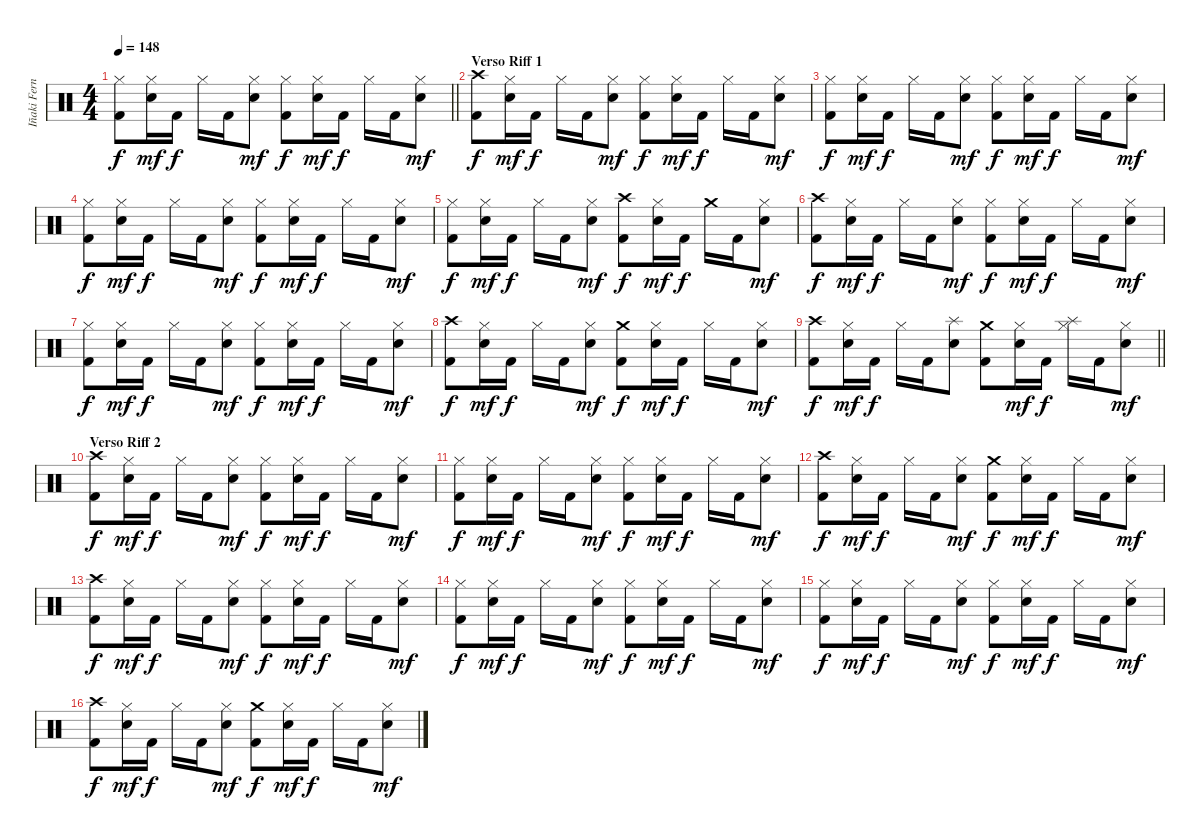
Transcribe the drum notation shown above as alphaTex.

\track ("Iñaki Fernández" "Iñaki Fern") {instrument percussion}
\staff {score}
\articulation defaults
\ts (4 4)
\tempo 148
\clef neutral
\barLineRight lightlight
\ks c
("Hi-Hat (closed)" "Kick (hit) 2").8{dy f} ("Hi-Hat (closed)" "Snare (hit) 2").16{dy mf} "Kick (hit) 2".16{dy f} "Hi-Hat (closed)".16 "Kick (hit) 2".16 ("Hi-Hat (closed)" "Snare (hit) 2").8{dy mf} ("Hi-Hat (closed)" "Kick (hit) 2").8{dy f} ("Hi-Hat (closed)" "Snare (hit) 2").16{dy mf} "Kick (hit) 2".16{dy f} "Hi-Hat (closed)".16 "Kick (hit) 2".16 ("Hi-Hat (closed)" "Snare (hit) 2").8{dy mf} |
\section ("" "Verso Riff 1")
("Crash high (hit)" "Kick (hit) 2").8{dy f} ("Hi-Hat (closed)" "Snare (hit) 2").16{dy mf} "Kick (hit) 2".16{dy f} "Hi-Hat (closed)".16 "Kick (hit) 2".16 ("Hi-Hat (closed)" "Snare (hit) 2").8{dy mf} ("Hi-Hat (closed)" "Kick (hit) 2").8{dy f} ("Hi-Hat (closed)" "Snare (hit) 2").16{dy mf} "Kick (hit) 2".16{dy f} "Hi-Hat (closed)".16 "Kick (hit) 2".16 ("Hi-Hat (closed)" "Snare (hit) 2").8{dy mf} |
("Hi-Hat (closed)" "Kick (hit) 2").8{dy f} ("Hi-Hat (closed)" "Snare (hit) 2").16{dy mf} "Kick (hit) 2".16{dy f} "Hi-Hat (closed)".16 "Kick (hit) 2".16 ("Hi-Hat (closed)" "Snare (hit) 2").8{dy mf} ("Hi-Hat (closed)" "Kick (hit) 2").8{dy f} ("Hi-Hat (closed)" "Snare (hit) 2").16{dy mf} "Kick (hit) 2".16{dy f} "Hi-Hat (closed)".16 "Kick (hit) 2".16 ("Hi-Hat (closed)" "Snare (hit) 2").8{dy mf} |
("Hi-Hat (closed)" "Kick (hit) 2").8{dy f} ("Hi-Hat (closed)" "Snare (hit) 2").16{dy mf} "Kick (hit) 2".16{dy f} "Hi-Hat (closed)".16 "Kick (hit) 2".16 ("Hi-Hat (closed)" "Snare (hit) 2").8{dy mf} ("Hi-Hat (closed)" "Kick (hit) 2").8{dy f} ("Hi-Hat (closed)" "Snare (hit) 2").16{dy mf} "Kick (hit) 2".16{dy f} "Hi-Hat (closed)".16 "Kick (hit) 2".16 ("Hi-Hat (closed)" "Snare (hit) 2").8{dy mf} |
("Hi-Hat (closed)" "Kick (hit) 2").8{dy f} ("Hi-Hat (closed)" "Snare (hit) 2").16{dy mf} "Kick (hit) 2".16{dy f} "Hi-Hat (closed)".16 "Kick (hit) 2".16 ("Hi-Hat (closed)" "Snare (hit) 2").8{dy mf} ("Crash high (hit)" "Kick (hit) 2").8{dy f} ("Hi-Hat (closed)" "Snare (hit) 2").16{dy mf} "Kick (hit) 2".16{dy f} "Crash medium (hit)".16 "Kick (hit) 2".16 ("Hi-Hat (closed)" "Snare (hit) 2").8{dy mf} |
("Crash high (hit)" "Kick (hit) 2").8{dy f} ("Hi-Hat (closed)" "Snare (hit) 2").16{dy mf} "Kick (hit) 2".16{dy f} "Hi-Hat (closed)".16 "Kick (hit) 2".16 ("Hi-Hat (closed)" "Snare (hit) 2").8{dy mf} ("Hi-Hat (closed)" "Kick (hit) 2").8{dy f} ("Hi-Hat (closed)" "Snare (hit) 2").16{dy mf} "Kick (hit) 2".16{dy f} "Hi-Hat (closed)".16 "Kick (hit) 2".16 ("Hi-Hat (closed)" "Snare (hit) 2").8{dy mf} |
("Hi-Hat (closed)" "Kick (hit) 2").8{dy f} ("Hi-Hat (closed)" "Snare (hit) 2").16{dy mf} "Kick (hit) 2".16{dy f} "Hi-Hat (closed)".16 "Kick (hit) 2".16 ("Hi-Hat (closed)" "Snare (hit) 2").8{dy mf} ("Hi-Hat (closed)" "Kick (hit) 2").8{dy f} ("Hi-Hat (closed)" "Snare (hit) 2").16{dy mf} "Kick (hit) 2".16{dy f} "Hi-Hat (closed)".16 "Kick (hit) 2".16 ("Hi-Hat (closed)" "Snare (hit) 2").8{dy mf} |
("Crash high (hit)" "Kick (hit) 2").8{dy f} ("Hi-Hat (closed)" "Snare (hit) 2").16{dy mf} "Kick (hit) 2".16{dy f} "Hi-Hat (closed)".16 "Kick (hit) 2".16 ("Hi-Hat (closed)" "Snare (hit) 2").8{dy mf} ("Crash medium (hit)" "Kick (hit) 2").8{dy f} ("Hi-Hat (closed)" "Snare (hit) 2").16{dy mf} "Kick (hit) 2".16{dy f} "Hi-Hat (closed)".16 "Kick (hit) 2".16 ("Hi-Hat (closed)" "Snare (hit) 2").8{dy mf} |
\barLineRight lightlight
("Crash high (hit)" "Kick (hit) 2").8{dy f} ("Hi-Hat (closed)" "Snare (hit) 2").16{dy mf} "Kick (hit) 2".16{dy f} "Hi-Hat (closed)".16 "Kick (hit) 2".16 ("Snare (hit) 2" "Splash (hit)").8 ("Crash medium (hit)" "Kick (hit) 2").8 ("Hi-Hat (closed)" "Snare (hit) 2").16{dy mf} "Kick (hit) 2".16{dy f} ("Hi-Hat (closed)" "Splash (hit)").16 "Kick (hit) 2".16 ("Hi-Hat (closed)" "Snare (hit) 2").8{dy mf} |
\section ("" "Verso Riff 2")
("Crash high (hit)" "Kick (hit) 2").8{dy f} ("Hi-Hat (closed)" "Snare (hit) 2").16{dy mf} "Kick (hit) 2".16{dy f} "Hi-Hat (closed)".16 "Kick (hit) 2".16 ("Hi-Hat (closed)" "Snare (hit) 2").8{dy mf} ("Hi-Hat (closed)" "Kick (hit) 2").8{dy f} ("Hi-Hat (closed)" "Snare (hit) 2").16{dy mf} "Kick (hit) 2".16{dy f} "Hi-Hat (closed)".16 "Kick (hit) 2".16 ("Hi-Hat (closed)" "Snare (hit) 2").8{dy mf} |
("Hi-Hat (closed)" "Kick (hit) 2").8{dy f} ("Hi-Hat (closed)" "Snare (hit) 2").16{dy mf} "Kick (hit) 2".16{dy f} "Hi-Hat (closed)".16 "Kick (hit) 2".16 ("Hi-Hat (closed)" "Snare (hit) 2").8{dy mf} ("Hi-Hat (closed)" "Kick (hit) 2").8{dy f} ("Hi-Hat (closed)" "Snare (hit) 2").16{dy mf} "Kick (hit) 2".16{dy f} "Hi-Hat (closed)".16 "Kick (hit) 2".16 ("Hi-Hat (closed)" "Snare (hit) 2").8{dy mf} |
("Crash high (hit)" "Kick (hit) 2").8{dy f} ("Hi-Hat (closed)" "Snare (hit) 2").16{dy mf} "Kick (hit) 2".16{dy f} "Hi-Hat (closed)".16 "Kick (hit) 2".16 ("Hi-Hat (closed)" "Snare (hit) 2").8{dy mf} ("Crash medium (hit)" "Kick (hit) 2").8{dy f} ("Hi-Hat (closed)" "Snare (hit) 2").16{dy mf} "Kick (hit) 2".16{dy f} "Hi-Hat (closed)".16 "Kick (hit) 2".16 ("Hi-Hat (closed)" "Snare (hit) 2").8{dy mf} |
("Crash high (hit)" "Kick (hit) 2").8{dy f} ("Hi-Hat (closed)" "Snare (hit) 2").16{dy mf} "Kick (hit) 2".16{dy f} "Hi-Hat (closed)".16 "Kick (hit) 2".16 ("Hi-Hat (closed)" "Snare (hit) 2").8{dy mf} ("Hi-Hat (closed)" "Kick (hit) 2").8{dy f} ("Hi-Hat (closed)" "Snare (hit) 2").16{dy mf} "Kick (hit) 2".16{dy f} "Hi-Hat (closed)".16 "Kick (hit) 2".16 ("Hi-Hat (closed)" "Snare (hit) 2").8{dy mf} |
("Hi-Hat (closed)" "Kick (hit) 2").8{dy f} ("Hi-Hat (closed)" "Snare (hit) 2").16{dy mf} "Kick (hit) 2".16{dy f} "Hi-Hat (closed)".16 "Kick (hit) 2".16 ("Hi-Hat (closed)" "Snare (hit) 2").8{dy mf} ("Hi-Hat (closed)" "Kick (hit) 2").8{dy f} ("Hi-Hat (closed)" "Snare (hit) 2").16{dy mf} "Kick (hit) 2".16{dy f} "Hi-Hat (closed)".16 "Kick (hit) 2".16 ("Hi-Hat (closed)" "Snare (hit) 2").8{dy mf} |
("Hi-Hat (closed)" "Kick (hit) 2").8{dy f} ("Hi-Hat (closed)" "Snare (hit) 2").16{dy mf} "Kick (hit) 2".16{dy f} "Hi-Hat (closed)".16 "Kick (hit) 2".16 ("Hi-Hat (closed)" "Snare (hit) 2").8{dy mf} ("Hi-Hat (closed)" "Kick (hit) 2").8{dy f} ("Hi-Hat (closed)" "Snare (hit) 2").16{dy mf} "Kick (hit) 2".16{dy f} "Hi-Hat (closed)".16 "Kick (hit) 2".16 ("Hi-Hat (closed)" "Snare (hit) 2").8{dy mf} |
("Crash high (hit)" "Kick (hit) 2").8{dy f} ("Hi-Hat (closed)" "Snare (hit) 2").16{dy mf} "Kick (hit) 2".16{dy f} "Hi-Hat (closed)".16 "Kick (hit) 2".16 ("Hi-Hat (closed)" "Snare (hit) 2").8{dy mf} ("Crash medium (hit)" "Kick (hit) 2").8{dy f} ("Hi-Hat (closed)" "Snare (hit) 2").16{dy mf} "Kick (hit) 2".16{dy f} "Hi-Hat (closed)".16 "Kick (hit) 2".16 ("Hi-Hat (closed)" "Snare (hit) 2").8{dy mf}
